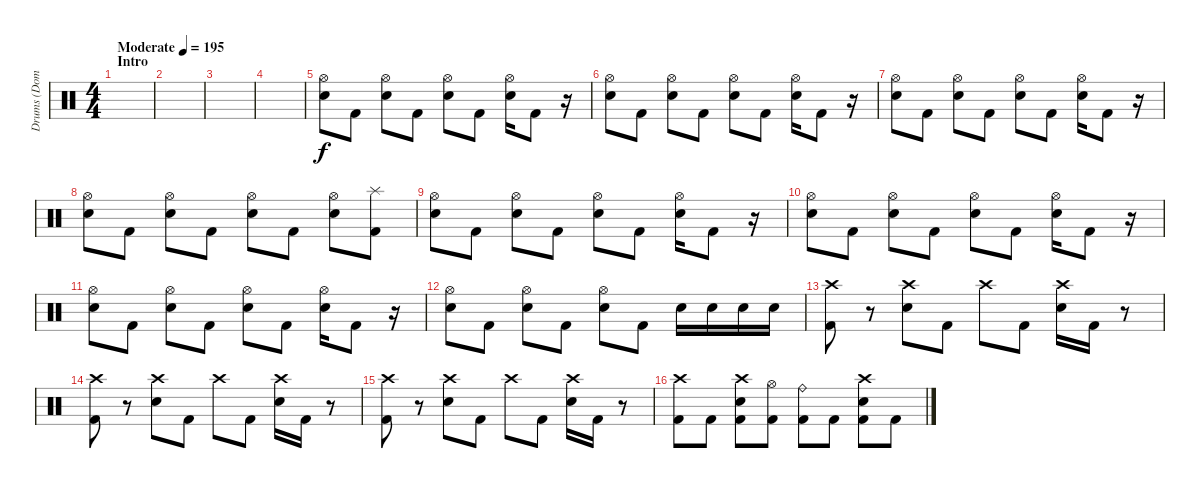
\track ("Drums (Dominik)" "Drums (Dom") {instrument percussion}
\staff {score}
\articulation defaults
\ts (4 4)
\section ("" "Intro")
\tempo (195 "Moderate")
\clef neutral
\ks c
|
|
|
|
("Hi-Hat (open)" "Electric Snare (hit)").8 "Kick (hit) 2".8 ("Hi-Hat (open)" "Electric Snare (hit)").8 "Kick (hit) 2".8 ("Hi-Hat (open)" "Electric Snare (hit)").8 "Kick (hit) 2".8 ("Hi-Hat (open)" "Electric Snare (hit)").16 "Kick (hit) 2".8 r.16 |
("Hi-Hat (open)" "Electric Snare (hit)").8 "Kick (hit) 2".8 ("Hi-Hat (open)" "Electric Snare (hit)").8 "Kick (hit) 2".8 ("Hi-Hat (open)" "Electric Snare (hit)").8 "Kick (hit) 2".8 ("Hi-Hat (open)" "Electric Snare (hit)").16 "Kick (hit) 2".8 r.16 |
("Hi-Hat (open)" "Electric Snare (hit)").8 "Kick (hit) 2".8 ("Hi-Hat (open)" "Electric Snare (hit)").8 "Kick (hit) 2".8 ("Hi-Hat (open)" "Electric Snare (hit)").8 "Kick (hit) 2".8 ("Hi-Hat (open)" "Electric Snare (hit)").16 "Kick (hit) 2".8 r.16 |
("Hi-Hat (open)" "Electric Snare (hit)").8 "Kick (hit) 2".8 ("Hi-Hat (open)" "Electric Snare (hit)").8 "Kick (hit) 2".8 ("Hi-Hat (open)" "Electric Snare (hit)").8 "Kick (hit) 2".8 ("Hi-Hat (open)" "Electric Snare (hit)").8 ("Splash (hit)" "Kick (hit) 2").8 |
("Hi-Hat (open)" "Electric Snare (hit)").8 "Kick (hit) 2".8 ("Hi-Hat (open)" "Electric Snare (hit)").8 "Kick (hit) 2".8 ("Hi-Hat (open)" "Electric Snare (hit)").8 "Kick (hit) 2".8 ("Hi-Hat (open)" "Electric Snare (hit)").16 "Kick (hit) 2".8 r.16 |
("Hi-Hat (open)" "Electric Snare (hit)").8 "Kick (hit) 2".8 ("Hi-Hat (open)" "Electric Snare (hit)").8 "Kick (hit) 2".8 ("Hi-Hat (open)" "Electric Snare (hit)").8 "Kick (hit) 2".8 ("Hi-Hat (open)" "Electric Snare (hit)").16 "Kick (hit) 2".8 r.16 |
("Hi-Hat (open)" "Electric Snare (hit)").8 "Kick (hit) 2".8 ("Hi-Hat (open)" "Electric Snare (hit)").8 "Kick (hit) 2".8 ("Hi-Hat (open)" "Electric Snare (hit)").8 "Kick (hit) 2".8 ("Hi-Hat (open)" "Electric Snare (hit)").16 "Kick (hit) 2".8 r.16 |
("Hi-Hat (open)" "Electric Snare (hit)").8 "Kick (hit) 2".8 ("Hi-Hat (open)" "Electric Snare (hit)").8 "Kick (hit) 2".8 ("Hi-Hat (open)" "Electric Snare (hit)").8 "Kick (hit) 2".8 "Electric Snare (hit)".16 "Electric Snare (hit)".16 "Electric Snare (hit)".16 "Electric Snare (hit)".16 |
("Crash high (hit)" "Kick (hit) 2").8 r.8 ("Crash high (hit)" "Electric Snare (hit)").8 "Kick (hit) 2".8 "Crash high (hit)".8 "Kick (hit) 2".8 ("Crash high (hit)" "Electric Snare (hit)").16 "Kick (hit) 2".16 r.8 |
("Crash high (hit)" "Kick (hit) 2").8 r.8 ("Crash high (hit)" "Electric Snare (hit)").8 "Kick (hit) 2".8 "Crash high (hit)".8 "Kick (hit) 2".8 ("Crash high (hit)" "Electric Snare (hit)").16 "Kick (hit) 2".16 r.8 |
("Crash high (hit)" "Kick (hit) 2").8 r.8 ("Crash high (hit)" "Electric Snare (hit)").8 "Kick (hit) 2".8 "Crash high (hit)".8 "Kick (hit) 2".8 ("Crash high (hit)" "Electric Snare (hit)").16 "Kick (hit) 2".16 r.8 |
("Crash high (hit)" "Kick (hit) 2").8 "Kick (hit) 2".8 ("Crash high (hit)" "Electric Snare (hit)" "Kick (hit) 2").8 ("Hi-Hat (open)" "Kick (hit) 2").8 ("Ride (bell)" "Kick (hit) 2").8 "Kick (hit) 2".8 ("Crash high (hit)" "Electric Snare (hit)" "Kick (hit) 2").8 "Kick (hit) 2".8
